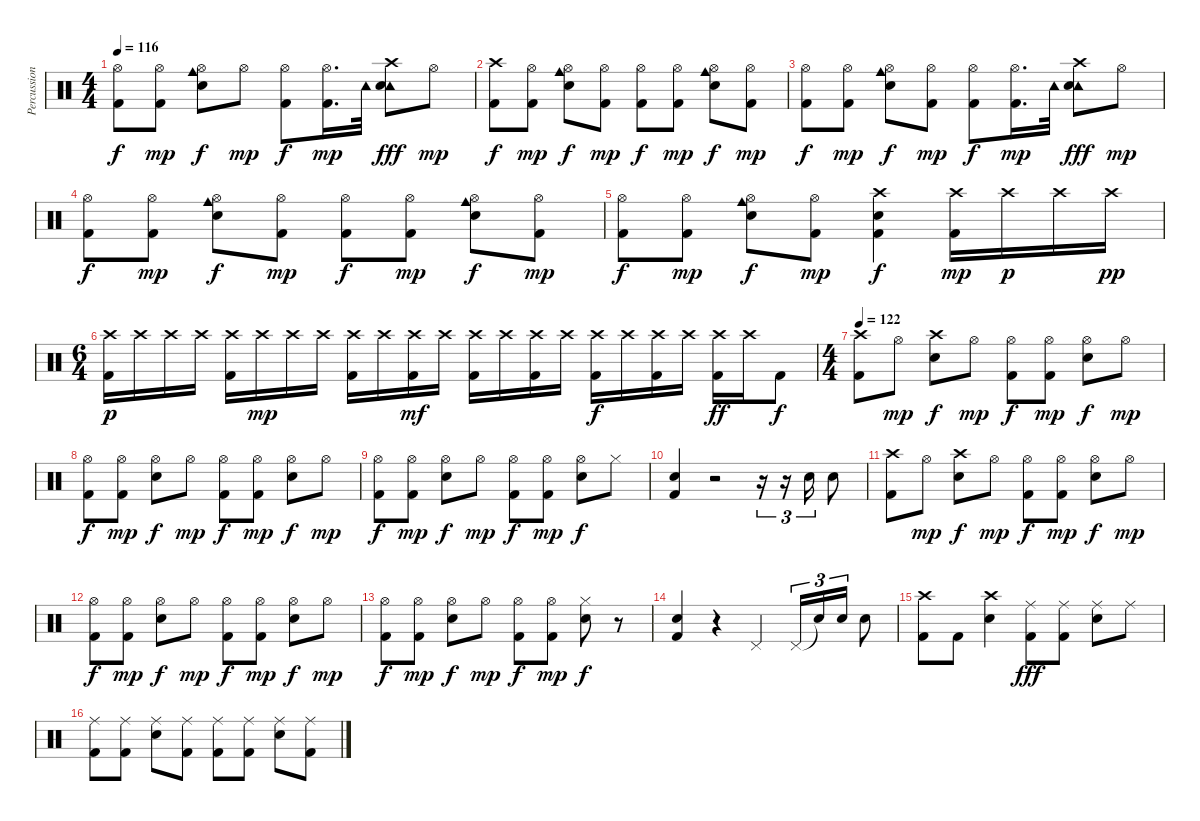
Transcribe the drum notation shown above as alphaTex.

\track ("Percussion (Peter)" "Percussion") {instrument percussion}
\staff {score}
\articulation defaults
\ts (4 4)
\tempo 116
\clef neutral
\ks c
("Hi-Hat (open)" "Kick (hit) 2").8{dy f} ("Hi-Hat (open)" "Kick (hit) 2").8{dy mp} ("Cowbell medium (hit)" "Hi-Hat (open)" "Snare (hit) 2").8{dy f} "Hi-Hat (open)".8{dy mp} ("Hi-Hat (open)" "Kick (hit) 2").8{dy f} ("Hi-Hat (open)" "Kick (hit) 2").16{d dy mp} "Tambourine (hit)".32 ("Crash high (hit)" "Tambourine (hit)" "Snare (hit) 2").8{dy fff} "Hi-Hat (open)".8{dy mp} |
("Crash high (hit)" "Kick (hit) 2").8{dy f} ("Hi-Hat (open)" "Kick (hit) 2").8{dy mp} ("Cowbell medium (hit)" "Hi-Hat (open)" "Snare (hit) 2").8{dy f} ("Hi-Hat (open)" "Kick (hit) 2").8{dy mp} ("Hi-Hat (open)" "Kick (hit) 2").8{dy f} ("Hi-Hat (open)" "Kick (hit) 2").8{dy mp} ("Cowbell medium (hit)" "Hi-Hat (open)" "Snare (hit) 2").8{dy f} ("Hi-Hat (open)" "Kick (hit) 2").8{dy mp} |
("Hi-Hat (open)" "Kick (hit) 2").8{dy f} ("Hi-Hat (open)" "Kick (hit) 2").8{dy mp} ("Cowbell medium (hit)" "Hi-Hat (open)" "Snare (hit) 2").8{dy f} ("Hi-Hat (open)" "Kick (hit) 2").8{dy mp} ("Hi-Hat (open)" "Kick (hit) 2").8{dy f} ("Hi-Hat (open)" "Kick (hit) 2").16{d dy mp} "Tambourine (hit)".32 ("Crash high (hit)" "Tambourine (hit)" "Snare (hit) 2").8{dy fff} "Hi-Hat (open)".8{dy mp} |
("Hi-Hat (open)" "Kick (hit) 2").8{dy f} ("Hi-Hat (open)" "Kick (hit) 2").8{dy mp} ("Cowbell medium (hit)" "Hi-Hat (open)" "Snare (hit) 2").8{dy f} ("Hi-Hat (open)" "Kick (hit) 2").8{dy mp} ("Hi-Hat (open)" "Kick (hit) 2").8{dy f} ("Hi-Hat (open)" "Kick (hit) 2").8{dy mp} ("Cowbell medium (hit)" "Hi-Hat (open)" "Snare (hit) 2").8{dy f} ("Hi-Hat (open)" "Kick (hit) 2").8{dy mp} |
("Hi-Hat (open)" "Kick (hit) 2").8{dy f} ("Hi-Hat (open)" "Kick (hit) 2").8{dy mp} ("Cowbell medium (hit)" "Hi-Hat (open)" "Snare (hit) 2").8{dy f} ("Hi-Hat (open)" "Kick (hit) 2").8{dy mp} ("Crash high (hit)" "Snare (hit) 2" "Kick (hit) 2").4{dy f} ("Crash high (hit)" "Kick (hit) 2").16{dy mp} "Crash high (hit)".16{dy p} "Crash high (hit)".16 "Crash high (hit)".16{dy pp} |
\ts (6 4)
("Crash high (hit)" "Kick (hit) 2").16{dy p} "Crash high (hit)".16 "Crash high (hit)".16 "Crash high (hit)".16 ("Crash high (hit)" "Kick (hit) 2").16 "Crash high (hit)".16{dy mp} "Crash high (hit)".16 "Crash high (hit)".16 ("Crash high (hit)" "Kick (hit) 2").16 "Crash high (hit)".16 ("Crash high (hit)" "Kick (hit) 2").16{dy mf} "Crash high (hit)".16 ("Crash high (hit)" "Kick (hit) 2").16 "Crash high (hit)".16 ("Crash high (hit)" "Kick (hit) 2").16 "Crash high (hit)".16 ("Crash high (hit)" "Kick (hit) 2").16{dy f} "Crash high (hit)".16 ("Crash high (hit)" "Kick (hit) 2").16 "Crash high (hit)".16 ("Crash high (hit)" "Kick (hit) 2").16{dy ff} "Crash high (hit)".16 "Kick (hit) 2".8{dy f} |
\ts (4 4)
\tempo 122
("Crash high (hit)" "Kick (hit) 2").8 "Hi-Hat (open)".8{dy mp} ("Crash high (hit)" "Snare (hit) 2").8{dy f} "Hi-Hat (open)".8{dy mp} ("Hi-Hat (open)" "Kick (hit) 2").8{dy f} ("Hi-Hat (open)" "Kick (hit) 2").8{dy mp} ("Hi-Hat (open)" "Snare (hit) 2").8{dy f} "Hi-Hat (open)".8{dy mp} |
("Hi-Hat (open)" "Kick (hit) 2").8{dy f} ("Hi-Hat (open)" "Kick (hit) 2").8{dy mp} ("Hi-Hat (open)" "Snare (hit) 2").8{dy f} "Hi-Hat (open)".8{dy mp} ("Hi-Hat (open)" "Kick (hit) 2").8{dy f} ("Hi-Hat (open)" "Kick (hit) 2").8{dy mp} ("Hi-Hat (open)" "Snare (hit) 2").8{dy f} "Hi-Hat (open)".8{dy mp} |
("Hi-Hat (open)" "Kick (hit) 2").8{dy f} ("Hi-Hat (open)" "Kick (hit) 2").8{dy mp} ("Hi-Hat (open)" "Snare (hit) 2").8{dy f} "Hi-Hat (open)".8{dy mp} ("Hi-Hat (open)" "Kick (hit) 2").8{dy f} ("Hi-Hat (open)" "Kick (hit) 2").8{dy mp} ("Hi-Hat (open)" "Snare (hit) 2").8{dy f} "Hi-Hat (closed)".8 |
("Snare (hit) 2" "Kick (hit) 2").4 r.2 r.16{tu (3 2)} r.16{tu (3 2)} "Snare (hit) 2".16{tu (3 2)} "Snare (hit) 2".8 |
("Crash high (hit)" "Kick (hit) 2").8 "Hi-Hat (open)".8{dy mp} ("Crash high (hit)" "Snare (hit) 2").8{dy f} "Hi-Hat (open)".8{dy mp} ("Hi-Hat (open)" "Kick (hit) 2").8{dy f} ("Hi-Hat (open)" "Kick (hit) 2").8{dy mp} ("Hi-Hat (open)" "Snare (hit) 2").8{dy f} "Hi-Hat (open)".8{dy mp} |
("Hi-Hat (open)" "Kick (hit) 2").8{dy f} ("Hi-Hat (open)" "Kick (hit) 2").8{dy mp} ("Hi-Hat (open)" "Snare (hit) 2").8{dy f} "Hi-Hat (open)".8{dy mp} ("Hi-Hat (open)" "Kick (hit) 2").8{dy f} ("Hi-Hat (open)" "Kick (hit) 2").8{dy mp} ("Hi-Hat (open)" "Snare (hit) 2").8{dy f} "Hi-Hat (open)".8{dy mp} |
("Hi-Hat (open)" "Kick (hit) 2").8{dy f} ("Hi-Hat (open)" "Kick (hit) 2").8{dy mp} ("Hi-Hat (open)" "Snare (hit) 2").8{dy f} "Hi-Hat (open)".8{dy mp} ("Hi-Hat (open)" "Kick (hit) 2").8{dy f} ("Hi-Hat (open)" "Kick (hit) 2").8{dy mp} ("Hi-Hat (closed)" "Snare (hit) 2").8{dy f} r.8 |
("Snare (hit) 2" "Kick (hit) 2").4 r.4 "Pedal Hi-Hat (hit)".4 "Pedal Hi-Hat (hit)".16{tu (3 2)} "Snare (hit)"{t}.16{tu (3 2)} "Snare (hit) 2".16{tu (3 2)} "Snare (hit) 2".8 |
("Crash high (hit)" "Kick (hit) 2").8 "Kick (hit) 2".8 ("Crash high (hit)" "Snare (hit) 2").4 ("Ride (middle)" "Kick (hit) 2").8{dy fff} ("Ride (middle)" "Kick (hit) 2").8 ("Ride (middle)" "Snare (hit) 2").8 "Ride (middle)".8 |
("Ride (middle)" "Kick (hit) 2").8 ("Ride (middle)" "Kick (hit) 2").8 ("Ride (middle)" "Snare (hit) 2").8 ("Ride (middle)" "Kick (hit) 2").8 ("Ride (middle)" "Kick (hit) 2").8 ("Ride (middle)" "Kick (hit) 2").8 ("Ride (middle)" "Snare (hit) 2").8 ("Ride (middle)" "Kick (hit) 2").8
